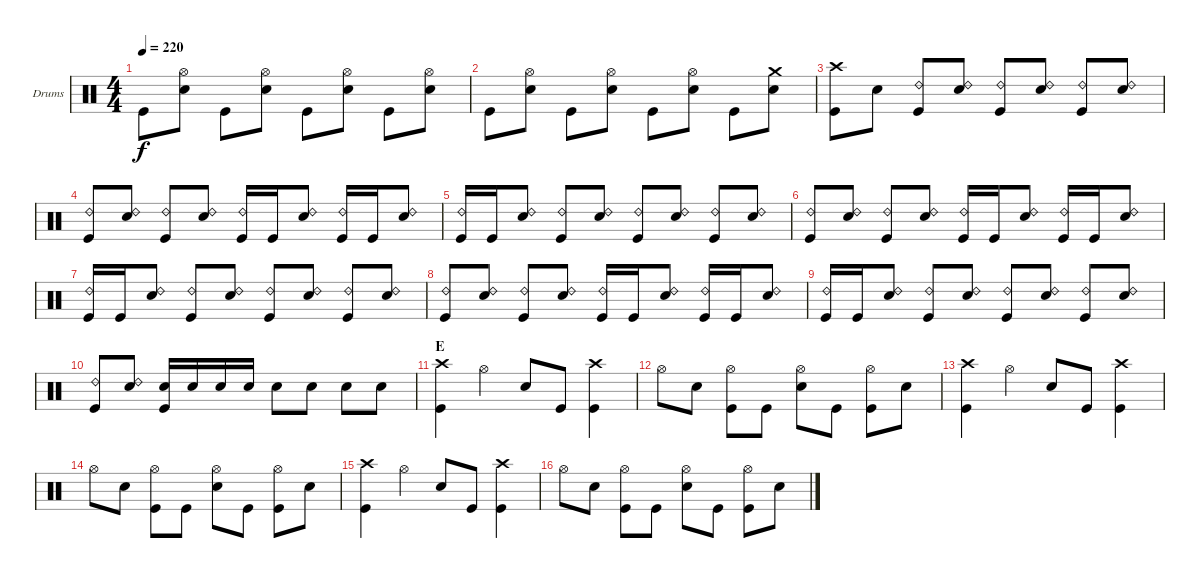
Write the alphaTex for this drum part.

\bracketExtendMode groupsimilarinstruments
\firstSystemTrackNameOrientation horizontal
\otherSystemsTrackNameOrientation horizontal
\track ("Drumkit" "Drums") {instrument percussion}
\staff {score}
\articulation defaults
\ts (4 4)
\tempo 220
\clef neutral
\scale
0.5
\ks c "Kick (hit)".8{dy f}
("Hi-Hat (open)" "Snare (hit) 2").8 "Kick (hit)".8 ("Hi-Hat (open)" "Snare (hit) 2").8 "Kick (hit)".8 ("Hi-Hat (open)" "Snare (hit) 2").8 "Kick (hit)".8 ("Hi-Hat (open)" "Snare (hit) 2").8 |
\scale
0.5 "Kick (hit)".8 ("Hi-Hat (open)" "Snare (hit) 2").8 "Kick (hit)".8 ("Hi-Hat (open)" "Snare (hit) 2").8 "Kick (hit)".8 ("Hi-Hat (open)" "Snare (hit) 2").8 "Kick (hit)".8 ("Crash medium (hit)" "Snare (hit) 2").8 |
\scale
0.451977 ("Crash high (hit)" "Kick (hit)").8 "Snare (hit) 2".8 ("Ride (bell) 2" "Kick (hit)").8 ("Ride (bell) 2" "Snare (hit) 2").8 ("Ride (bell) 2" "Kick (hit)").8 ("Ride (bell) 2" "Snare (hit) 2").8 ("Ride (bell) 2" "Kick (hit)").8 ("Ride (bell) 2" "Snare (hit) 2").8 |
\scale
0.548023 ("Ride (bell) 2" "Kick (hit)").8 ("Ride (bell) 2" "Snare (hit) 2").8 ("Ride (bell) 2" "Kick (hit)").8 ("Ride (bell) 2" "Snare (hit) 2").8 ("Ride (bell) 2" "Kick (hit)").16 "Kick (hit)".16 ("Ride (bell) 2" "Snare (hit) 2").8 ("Ride (bell) 2" "Kick (hit)").16 "Kick (hit)".16 ("Ride (bell) 2" "Snare (hit) 2").8 |
\scale
0.488127 ("Ride (bell) 2" "Kick (hit)").16 "Kick (hit)".16 ("Ride (bell) 2" "Snare (hit) 2").8 ("Ride (bell) 2" "Kick (hit)").8 ("Ride (bell) 2" "Snare (hit) 2").8 ("Ride (bell) 2" "Kick (hit)").8 ("Ride (bell) 2" "Snare (hit) 2").8 ("Ride (bell) 2" "Kick (hit)").8 ("Ride (bell) 2" "Snare (hit) 2").8 |
\scale
0.511873 ("Ride (bell) 2" "Kick (hit)").8 ("Ride (bell) 2" "Snare (hit) 2").8 ("Ride (bell) 2" "Kick (hit)").8 ("Ride (bell) 2" "Snare (hit) 2").8 ("Ride (bell) 2" "Kick (hit)").16 "Kick (hit)".16 ("Ride (bell) 2" "Snare (hit) 2").8 ("Ride (bell) 2" "Kick (hit)").16 "Kick (hit)".16 ("Ride (bell) 2" "Snare (hit) 2").8 |
\scale
0.488127 ("Ride (bell) 2" "Kick (hit)").16 "Kick (hit)".16 ("Ride (bell) 2" "Snare (hit) 2").8 ("Ride (bell) 2" "Kick (hit)").8 ("Ride (bell) 2" "Snare (hit) 2").8 ("Ride (bell) 2" "Kick (hit)").8 ("Ride (bell) 2" "Snare (hit) 2").8 ("Ride (bell) 2" "Kick (hit)").8 ("Ride (bell) 2" "Snare (hit) 2").8 |
\scale
0.511873 ("Ride (bell) 2" "Kick (hit)").8 ("Ride (bell) 2" "Snare (hit) 2").8 ("Ride (bell) 2" "Kick (hit)").8 ("Ride (bell) 2" "Snare (hit) 2").8 ("Ride (bell) 2" "Kick (hit)").16 "Kick (hit)".16 ("Ride (bell) 2" "Snare (hit) 2").8 ("Ride (bell) 2" "Kick (hit)").16 "Kick (hit)".16 ("Ride (bell) 2" "Snare (hit) 2").8 |
\scale
0.488127 ("Ride (bell) 2" "Kick (hit)").16 "Kick (hit)".16 ("Ride (bell) 2" "Snare (hit) 2").8 ("Ride (bell) 2" "Kick (hit)").8 ("Ride (bell) 2" "Snare (hit) 2").8 ("Ride (bell) 2" "Kick (hit)").8 ("Ride (bell) 2" "Snare (hit) 2").8 ("Ride (bell) 2" "Kick (hit)").8 ("Ride (bell) 2" "Snare (hit) 2").8 |
\scale
0.511873 ("Ride (bell) 2" "Kick (hit)").8 ("Ride (bell) 2" "Snare (hit) 2").8 ("Snare (hit) 2" "Kick (hit)").16 "Snare (hit) 2".16 "Snare (hit) 2".16 "Snare (hit) 2".16 "Snare (hit) 2".8 "Snare (hit) 2".8 "Snare (hit) 2".8 "Snare (hit) 2".8 |
\section ("" "E")
\scale
0.448276 ("Crash high (hit)" "Kick (hit)").4 "Hi-Hat (open)".4 "Snare (hit) 2".8 "Kick (hit)".8 ("Crash high (hit)" "Kick (hit)").4 |
\scale
0.551724 "Hi-Hat (open)".8 "Snare (hit) 2".8 ("Hi-Hat (open)" "Kick (hit)").8 "Kick (hit)".8 ("Hi-Hat (open)" "Snare (hit) 2").8 "Kick (hit)".8 ("Hi-Hat (open)" "Kick (hit)").8 "Snare (hit) 2".8 |
\scale
0.448276 ("Crash high (hit)" "Kick (hit)").4 "Hi-Hat (open)".4 "Snare (hit) 2".8 "Kick (hit)".8 ("Crash high (hit)" "Kick (hit)").4 |
\scale
0.551724 "Hi-Hat (open)".8 "Snare (hit) 2".8 ("Hi-Hat (open)" "Kick (hit)").8 "Kick (hit)".8 ("Hi-Hat (open)" "Snare (hit) 2").8 "Kick (hit)".8 ("Hi-Hat (open)" "Kick (hit)").8 "Snare (hit) 2".8 |
\scale
0.448276 ("Crash high (hit)" "Kick (hit)").4 "Hi-Hat (open)".4 "Snare (hit) 2".8 "Kick (hit)".8 ("Crash high (hit)" "Kick (hit)").4 |
\scale
0.551724 "Hi-Hat (open)".8 "Snare (hit) 2".8 ("Hi-Hat (open)" "Kick (hit)").8 "Kick (hit)".8 ("Hi-Hat (open)" "Snare (hit) 2").8 "Kick (hit)".8 ("Hi-Hat (open)" "Kick (hit)").8 "Snare (hit) 2".8
